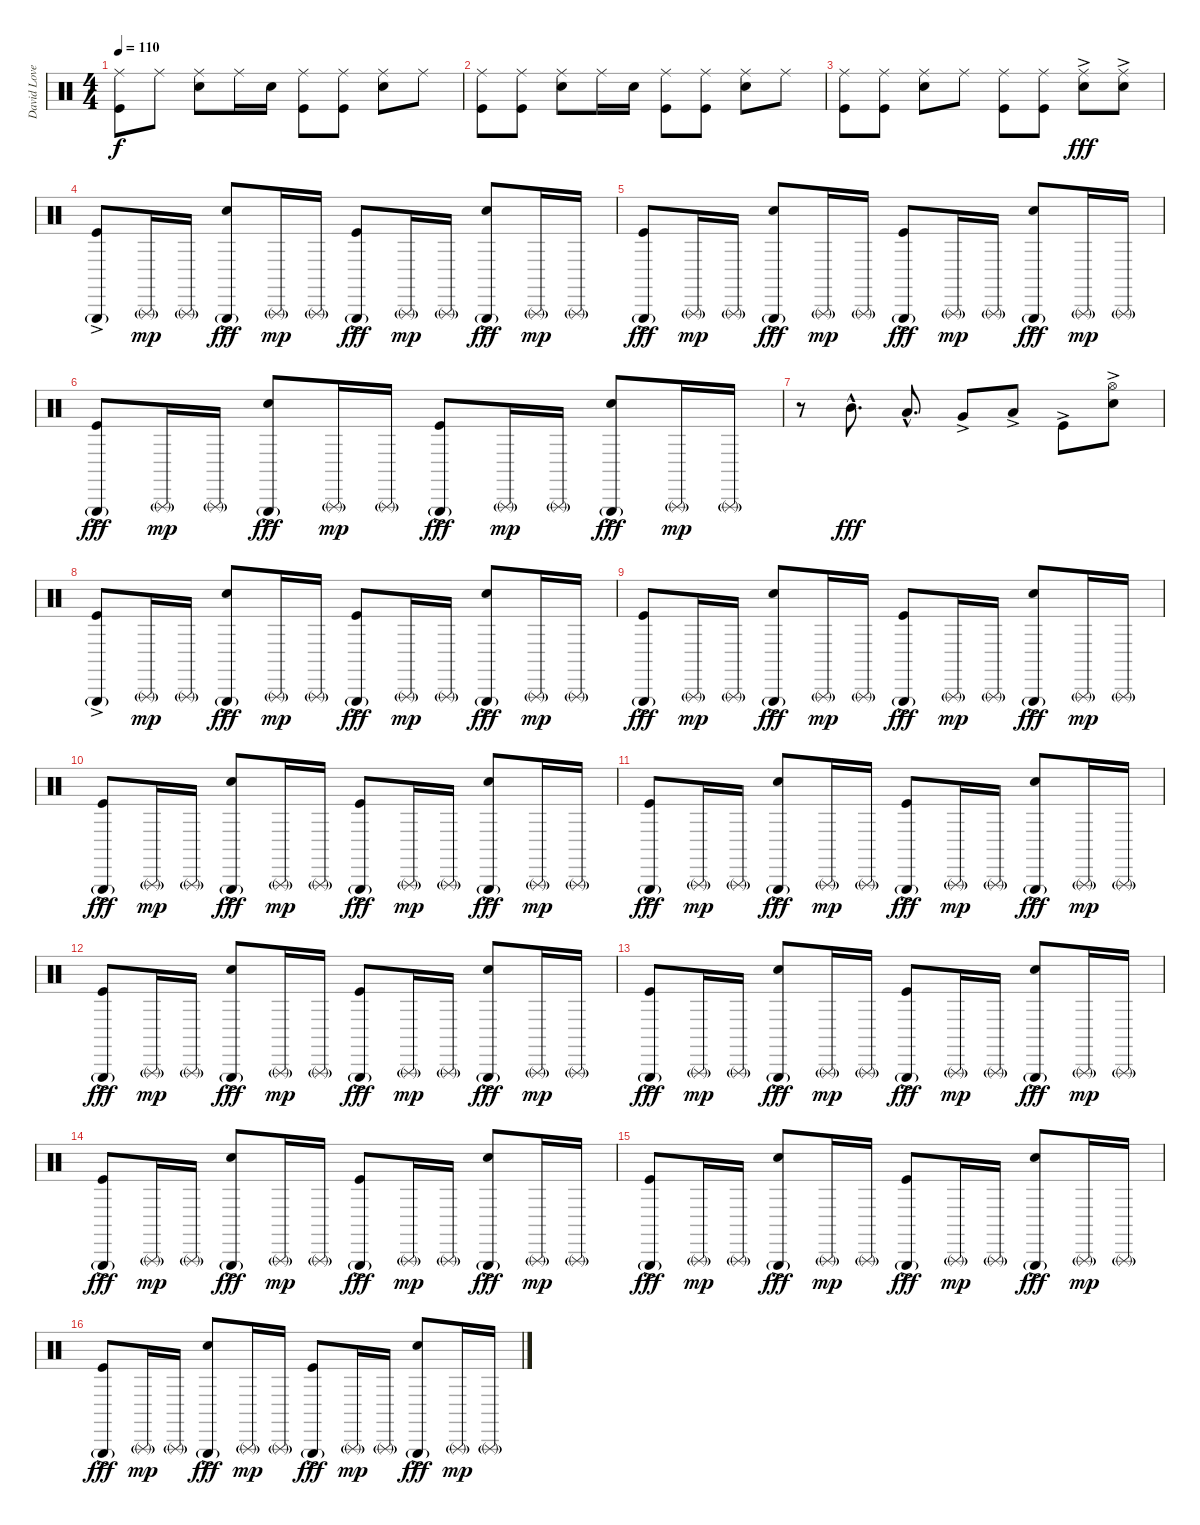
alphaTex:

\track ("David Lovering" "David Love") {instrument percussion}
\staff {score}
\articulation defaults
\ts (4 4)
\tempo 110
\clef neutral
\ks c
("Ride (middle)" "Kick (hit)").8{dy f} "Ride (middle)".8 ("Ride (middle)" "Snare (hit) 2").8 "Ride (middle)".16 "Snare (hit) 2".16 ("Ride (middle)" "Kick (hit)").8 ("Ride (middle)" "Kick (hit)").8 ("Ride (middle)" "Snare (hit) 2").8 "Ride (middle)".8 |
("Ride (middle)" "Kick (hit)").8 ("Ride (middle)" "Kick (hit)").8 ("Ride (middle)" "Snare (hit) 2").8 "Ride (middle)".16 "Snare (hit) 2".16 ("Ride (middle)" "Kick (hit)").8 ("Ride (middle)" "Kick (hit)").8 ("Ride (middle)" "Snare (hit) 2").8 "Ride (middle)".8 |
("Ride (middle)" "Kick (hit)").8 ("Ride (middle)" "Kick (hit)").8 ("Ride (middle)" "Snare (hit) 2").8 "Ride (middle)".8 ("Ride (middle)" "Kick (hit)").8 ("Ride (middle)" "Kick (hit)").8 ("Ride (middle)" "Snare (hit) 2"{ac}).8{dy fff} ("Ride (middle)" "Snare (hit) 2"{ac}).8 |
("Triangle (hit)"{g} "Kick (hit)"{ac}).8 "Triangle (rnute)"{g}.16{dy mp} "Triangle (rnute)"{g}.16 ("Triangle (hit)"{g} "Snare (hit) 2"{ac}).8{dy fff} "Triangle (rnute)"{g}.16{dy mp} "Triangle (rnute)"{g}.16 ("Triangle (hit)"{g} "Kick (hit)"{ac}).8{dy fff} "Triangle (rnute)"{g}.16{dy mp} "Triangle (rnute)"{g}.16 ("Triangle (hit)"{g} "Snare (hit) 2"{ac}).8{dy fff} "Triangle (rnute)"{g}.16{dy mp} "Triangle (rnute)"{g}.16 |
("Triangle (hit)"{g} "Kick (hit)"{ac}).8{dy fff} "Triangle (rnute)"{g}.16{dy mp} "Triangle (rnute)"{g}.16 ("Triangle (hit)"{g} "Snare (hit) 2"{ac}).8{dy fff} "Triangle (rnute)"{g}.16{dy mp} "Triangle (rnute)"{g}.16 ("Triangle (hit)"{g} "Kick (hit)"{ac}).8{dy fff} "Triangle (rnute)"{g}.16{dy mp} "Triangle (rnute)"{g}.16 ("Triangle (hit)"{g} "Snare (hit) 2"{ac}).8{dy fff} "Triangle (rnute)"{g}.16{dy mp} "Triangle (rnute)"{g}.16 |
("Triangle (hit)"{g} "Kick (hit)"{ac}).8{dy fff} "Triangle (rnute)"{g}.16{dy mp} "Triangle (rnute)"{g}.16 ("Triangle (hit)"{g} "Snare (hit) 2"{ac}).8{dy fff} "Triangle (rnute)"{g}.16{dy mp} "Triangle (rnute)"{g}.16 ("Triangle (hit)"{g} "Kick (hit)"{ac}).8{dy fff} "Triangle (rnute)"{g}.16{dy mp} "Triangle (rnute)"{g}.16 ("Triangle (hit)"{g} "Snare (hit) 2"{ac}).8{dy fff} "Triangle (rnute)"{g}.16{dy mp} "Triangle (rnute)"{g}.16 |
r.8 "Mid Tom (hit)"{hac}.8{d dy fff} "Low Tom (hit)"{hac}.8{d} "Very Low Tom (hit)"{ac}.8 "Low Floor Tom (hit)"{ac}.8 "Kick (hit)"{ac}.8 ("Hi-Hat (open)" "Snare (hit) 2"{ac}).8 |
\section ("" "")
("Triangle (hit)"{g} "Kick (hit)"{ac}).8 "Triangle (rnute)"{g}.16{dy mp} "Triangle (rnute)"{g}.16 ("Triangle (hit)"{g} "Snare (hit) 2"{ac}).8{dy fff} "Triangle (rnute)"{g}.16{dy mp} "Triangle (rnute)"{g}.16 ("Triangle (hit)"{g} "Kick (hit)"{ac}).8{dy fff} "Triangle (rnute)"{g}.16{dy mp} "Triangle (rnute)"{g}.16 ("Triangle (hit)"{g} "Snare (hit) 2"{ac}).8{dy fff} "Triangle (rnute)"{g}.16{dy mp} "Triangle (rnute)"{g}.16 |
("Triangle (hit)"{g} "Kick (hit)"{ac}).8{dy fff} "Triangle (rnute)"{g}.16{dy mp} "Triangle (rnute)"{g}.16 ("Triangle (hit)"{g} "Snare (hit) 2"{ac}).8{dy fff} "Triangle (rnute)"{g}.16{dy mp} "Triangle (rnute)"{g}.16 ("Triangle (hit)"{g} "Kick (hit)"{ac}).8{dy fff} "Triangle (rnute)"{g}.16{dy mp} "Triangle (rnute)"{g}.16 ("Triangle (hit)"{g} "Snare (hit) 2"{ac}).8{dy fff} "Triangle (rnute)"{g}.16{dy mp} "Triangle (rnute)"{g}.16 |
("Triangle (hit)"{g} "Kick (hit)"{ac}).8{dy fff} "Triangle (rnute)"{g}.16{dy mp} "Triangle (rnute)"{g}.16 ("Triangle (hit)"{g} "Snare (hit) 2"{ac}).8{dy fff} "Triangle (rnute)"{g}.16{dy mp} "Triangle (rnute)"{g}.16 ("Triangle (hit)"{g} "Kick (hit)"{ac}).8{dy fff} "Triangle (rnute)"{g}.16{dy mp} "Triangle (rnute)"{g}.16 ("Triangle (hit)"{g} "Snare (hit) 2"{ac}).8{dy fff} "Triangle (rnute)"{g}.16{dy mp} "Triangle (rnute)"{g}.16 |
("Triangle (hit)"{g} "Kick (hit)"{ac}).8{dy fff} "Triangle (rnute)"{g}.16{dy mp} "Triangle (rnute)"{g}.16 ("Triangle (hit)"{g} "Snare (hit) 2"{ac}).8{dy fff} "Triangle (rnute)"{g}.16{dy mp} "Triangle (rnute)"{g}.16 ("Triangle (hit)"{g} "Kick (hit)"{ac}).8{dy fff} "Triangle (rnute)"{g}.16{dy mp} "Triangle (rnute)"{g}.16 ("Triangle (hit)"{g} "Snare (hit) 2"{ac}).8{dy fff} "Triangle (rnute)"{g}.16{dy mp} "Triangle (rnute)"{g}.16 |
("Triangle (hit)"{g} "Kick (hit)"{ac}).8{dy fff} "Triangle (rnute)"{g}.16{dy mp} "Triangle (rnute)"{g}.16 ("Triangle (hit)"{g} "Snare (hit) 2"{ac}).8{dy fff} "Triangle (rnute)"{g}.16{dy mp} "Triangle (rnute)"{g}.16 ("Triangle (hit)"{g} "Kick (hit)"{ac}).8{dy fff} "Triangle (rnute)"{g}.16{dy mp} "Triangle (rnute)"{g}.16 ("Triangle (hit)"{g} "Snare (hit) 2"{ac}).8{dy fff} "Triangle (rnute)"{g}.16{dy mp} "Triangle (rnute)"{g}.16 |
("Triangle (hit)"{g} "Kick (hit)"{ac}).8{dy fff} "Triangle (rnute)"{g}.16{dy mp} "Triangle (rnute)"{g}.16 ("Triangle (hit)"{g} "Snare (hit) 2"{ac}).8{dy fff} "Triangle (rnute)"{g}.16{dy mp} "Triangle (rnute)"{g}.16 ("Triangle (hit)"{g} "Kick (hit)"{ac}).8{dy fff} "Triangle (rnute)"{g}.16{dy mp} "Triangle (rnute)"{g}.16 ("Triangle (hit)"{g} "Snare (hit) 2"{ac}).8{dy fff} "Triangle (rnute)"{g}.16{dy mp} "Triangle (rnute)"{g}.16 |
("Triangle (hit)"{g} "Kick (hit)"{ac}).8{dy fff} "Triangle (rnute)"{g}.16{dy mp} "Triangle (rnute)"{g}.16 ("Triangle (hit)"{g} "Snare (hit) 2"{ac}).8{dy fff} "Triangle (rnute)"{g}.16{dy mp} "Triangle (rnute)"{g}.16 ("Triangle (hit)"{g} "Kick (hit)"{ac}).8{dy fff} "Triangle (rnute)"{g}.16{dy mp} "Triangle (rnute)"{g}.16 ("Triangle (hit)"{g} "Snare (hit) 2"{ac}).8{dy fff} "Triangle (rnute)"{g}.16{dy mp} "Triangle (rnute)"{g}.16 |
("Triangle (hit)"{g} "Kick (hit)"{ac}).8{dy fff} "Triangle (rnute)"{g}.16{dy mp} "Triangle (rnute)"{g}.16 ("Triangle (hit)"{g} "Snare (hit) 2"{ac}).8{dy fff} "Triangle (rnute)"{g}.16{dy mp} "Triangle (rnute)"{g}.16 ("Triangle (hit)"{g} "Kick (hit)"{ac}).8{dy fff} "Triangle (rnute)"{g}.16{dy mp} "Triangle (rnute)"{g}.16 ("Triangle (hit)"{g} "Snare (hit) 2"{ac}).8{dy fff} "Triangle (rnute)"{g}.16{dy mp} "Triangle (rnute)"{g}.16 |
("Triangle (hit)"{g} "Kick (hit)"{ac}).8{dy fff} "Triangle (rnute)"{g}.16{dy mp} "Triangle (rnute)"{g}.16 ("Triangle (hit)"{g} "Snare (hit) 2"{ac}).8{dy fff} "Triangle (rnute)"{g}.16{dy mp} "Triangle (rnute)"{g}.16 ("Triangle (hit)"{g} "Kick (hit)"{ac}).8{dy fff} "Triangle (rnute)"{g}.16{dy mp} "Triangle (rnute)"{g}.16 ("Triangle (hit)"{g} "Snare (hit) 2"{ac}).8{dy fff} "Triangle (rnute)"{g}.16{dy mp} "Triangle (rnute)"{g}.16
